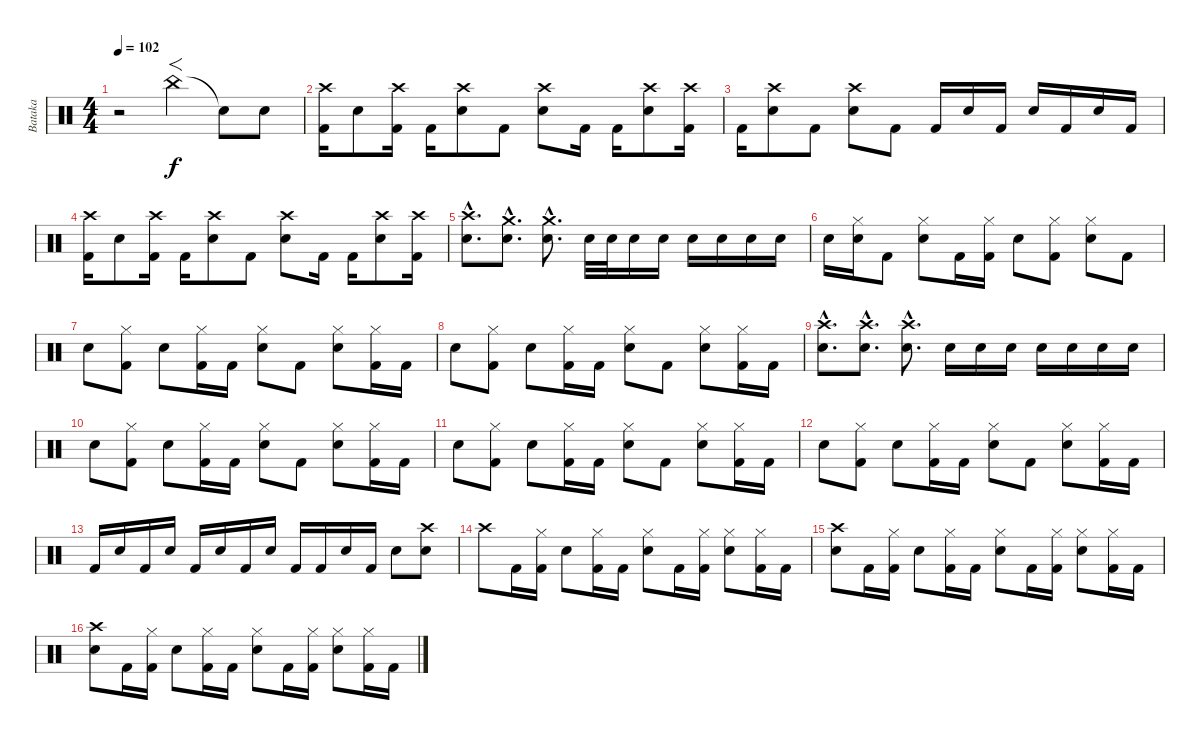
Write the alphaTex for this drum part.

\track ("Bataka" "Bataka") {instrument percussion}
\staff {score}
\articulation defaults
\ts (4 4)
\tempo 102
\clef neutral
\ks c
r.2{dy f} "China (hit)".4{f} "Snare (hit) 2"{t}.8 "Snare (hit) 2".8 |
("Kick (hit) 2" "Crash high (hit)").16 "Snare (hit) 2".8 ("Kick (hit) 2" "Crash high (hit)").16 "Kick (hit) 2".16 ("Snare (hit) 2" "Crash high (hit)").8 "Kick (hit) 2".8 ("Snare (hit) 2" "Crash high (hit)").8 "Kick (hit) 2".16 "Kick (hit) 2".16 ("Snare (hit) 2" "Crash high (hit)").8 ("Kick (hit) 2" "Crash high (hit)").16 |
"Kick (hit) 2".16 ("Snare (hit) 2" "Crash high (hit)").8 "Kick (hit) 2".8 ("Snare (hit) 2" "Crash high (hit)").8 "Kick (hit) 2".8 "Kick (hit) 2".16 "Snare (hit) 2".16 "Kick (hit) 2".16 "Snare (hit) 2".16 "Kick (hit) 2".16 "Snare (hit) 2".16 "Kick (hit) 2".16 |
("Kick (hit) 2" "Crash high (hit)").16 "Snare (hit) 2".8 ("Kick (hit) 2" "Crash high (hit)").16 "Kick (hit) 2".16 ("Snare (hit) 2" "Crash high (hit)").8 "Kick (hit) 2".8 ("Snare (hit) 2" "Crash high (hit)").8 "Kick (hit) 2".16 "Kick (hit) 2".16 ("Snare (hit) 2" "Crash high (hit)").8 ("Kick (hit) 2" "Crash high (hit)").16 |
("Snare (hit) 2"{hac} "Crash high (hit)"{hac}).8{d} ("Snare (hit) 2"{hac} "Crash medium (hit)"{hac}).8{d} ("Snare (hit) 2"{hac} "Crash medium (hit)"{hac}).8{d} "Snare (hit) 2".32 "Snare (hit) 2".32 "Snare (hit) 2".16 "Snare (hit) 2".16 "Snare (hit) 2".16 "Snare (hit) 2".16 "Snare (hit) 2".16 "Snare (hit) 2".16 |
"Snare (hit) 2".16 ("Hi-Hat (closed)" "Snare (hit) 2").16 "Kick (hit) 2".8 ("Hi-Hat (closed)" "Snare (hit) 2").8 "Kick (hit) 2".16 ("Hi-Hat (closed)" "Kick (hit) 2").16 "Snare (hit) 2".8 ("Hi-Hat (closed)" "Kick (hit) 2").8 ("Hi-Hat (closed)" "Snare (hit) 2").8 "Kick (hit) 2".8 |
"Snare (hit) 2".8 ("Hi-Hat (closed)" "Kick (hit) 2").8 "Snare (hit) 2".8 ("Hi-Hat (closed)" "Kick (hit) 2").16 "Kick (hit) 2".16 ("Hi-Hat (closed)" "Snare (hit) 2").8 "Kick (hit) 2".8 ("Hi-Hat (closed)" "Snare (hit) 2").8 ("Hi-Hat (closed)" "Kick (hit) 2").16 "Kick (hit) 2".16 |
"Snare (hit) 2".8 ("Hi-Hat (closed)" "Kick (hit) 2").8 "Snare (hit) 2".8 ("Hi-Hat (closed)" "Kick (hit) 2").16 "Kick (hit) 2".16 ("Hi-Hat (closed)" "Snare (hit) 2").8 "Kick (hit) 2".8 ("Hi-Hat (closed)" "Snare (hit) 2").8 ("Hi-Hat (closed)" "Kick (hit) 2").16 "Kick (hit) 2".16 |
("Crash high (hit)"{hac} "Snare (hit) 2"{hac}).8{d} ("Crash high (hit)"{hac} "Snare (hit) 2"{hac}).8{d} ("Crash high (hit)"{hac} "Snare (hit) 2"{hac}).8{d} "Snare (hit) 2".16 "Snare (hit) 2".16 "Snare (hit) 2".16 "Snare (hit) 2".16 "Snare (hit) 2".16 "Snare (hit) 2".16 "Snare (hit) 2".16 |
"Snare (hit) 2".8 ("Hi-Hat (closed)" "Kick (hit) 2").8 "Snare (hit) 2".8 ("Hi-Hat (closed)" "Kick (hit) 2").16 "Kick (hit) 2".16 ("Hi-Hat (closed)" "Snare (hit) 2").8 "Kick (hit) 2".8 ("Hi-Hat (closed)" "Snare (hit) 2").8 ("Hi-Hat (closed)" "Kick (hit) 2").16 "Kick (hit) 2".16 |
"Snare (hit) 2".8 ("Hi-Hat (closed)" "Kick (hit) 2").8 "Snare (hit) 2".8 ("Hi-Hat (closed)" "Kick (hit) 2").16 "Kick (hit) 2".16 ("Hi-Hat (closed)" "Snare (hit) 2").8 "Kick (hit) 2".8 ("Hi-Hat (closed)" "Snare (hit) 2").8 ("Hi-Hat (closed)" "Kick (hit) 2").16 "Kick (hit) 2".16 |
"Snare (hit) 2".8 ("Hi-Hat (closed)" "Kick (hit) 2").8 "Snare (hit) 2".8 ("Hi-Hat (closed)" "Kick (hit) 2").16 "Kick (hit) 2".16 ("Hi-Hat (closed)" "Snare (hit) 2").8 "Kick (hit) 2".8 ("Hi-Hat (closed)" "Snare (hit) 2").8 ("Hi-Hat (closed)" "Kick (hit) 2").16 "Kick (hit) 2".16 |
"Kick (hit) 2".16 "Snare (hit) 2".16 "Kick (hit) 2".16 "Snare (hit) 2".16 "Kick (hit) 2".16 "Snare (hit) 2".16 "Kick (hit) 2".16 "Snare (hit) 2".16 "Kick (hit) 2".16 "Kick (hit) 2".16 "Snare (hit) 2".16 "Kick (hit) 2".16 "Snare (hit) 2".8 ("Crash high (hit)" "Snare (hit) 2").8 |
"Crash high (hit)".8 "Kick (hit) 2".16 ("Hi-Hat (closed)" "Kick (hit) 2").16 "Snare (hit) 2".8 ("Hi-Hat (closed)" "Kick (hit) 2").16 "Kick (hit) 2".16 ("Hi-Hat (closed)" "Snare (hit) 2").8 "Kick (hit) 2".16 ("Hi-Hat (closed)" "Kick (hit) 2").16 ("Hi-Hat (closed)" "Snare (hit) 2").8 ("Hi-Hat (closed)" "Kick (hit) 2").16 "Kick (hit) 2".16 |
("Crash high (hit)" "Snare (hit) 2").8 "Kick (hit) 2".16 ("Hi-Hat (closed)" "Kick (hit) 2").16 "Snare (hit) 2".8 ("Hi-Hat (closed)" "Kick (hit) 2").16 "Kick (hit) 2".16 ("Hi-Hat (closed)" "Snare (hit) 2").8 "Kick (hit) 2".16 ("Hi-Hat (closed)" "Kick (hit) 2").16 ("Hi-Hat (closed)" "Snare (hit) 2").8 ("Hi-Hat (closed)" "Kick (hit) 2").16 "Kick (hit) 2".16 |
("Crash high (hit)" "Snare (hit) 2").8 "Kick (hit) 2".16 ("Hi-Hat (closed)" "Kick (hit) 2").16 "Snare (hit) 2".8 ("Hi-Hat (closed)" "Kick (hit) 2").16 "Kick (hit) 2".16 ("Hi-Hat (closed)" "Snare (hit) 2").8 "Kick (hit) 2".16 ("Hi-Hat (closed)" "Kick (hit) 2").16 ("Hi-Hat (closed)" "Snare (hit) 2").8 ("Hi-Hat (closed)" "Kick (hit) 2").16 "Kick (hit) 2".16
